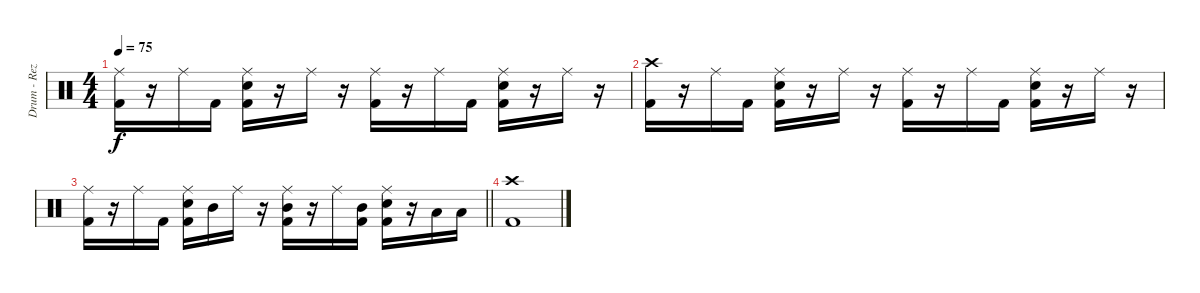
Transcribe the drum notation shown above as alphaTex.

\track ("Drum - Reza" "Drum - Rez") {instrument percussion}
\staff {score}
\articulation defaults
\ts (4 4)
\tempo 75
\clef neutral
\ks c
("Ride (middle)" "Kick (hit) 2").16{dy f} r.16 "Ride (middle)".16 "Kick (hit) 2".16 ("Ride (middle)" "Electric Snare (hit)" "Kick (hit) 2").16 r.16 "Ride (middle)".16 r.16 ("Ride (middle)" "Kick (hit) 2").16 r.16 "Ride (middle)".16 "Kick (hit) 2".16 ("Ride (middle)" "Electric Snare (hit)" "Kick (hit) 2").16 r.16 "Ride (middle)".16 r.16 |
("Crash high (hit)" "Kick (hit) 2").16 r.16 "Ride (middle)".16 "Kick (hit) 2".16 ("Ride (middle)" "Electric Snare (hit)" "Kick (hit) 2").16 r.16 "Ride (middle)".16 r.16 ("Ride (middle)" "Kick (hit) 2").16 r.16 "Ride (middle)".16 "Kick (hit) 2".16 ("Ride (middle)" "Electric Snare (hit)" "Kick (hit) 2").16 r.16 "Ride (middle)".16 r.16 |
\barLineRight lightlight
("Ride (middle)" "Kick (hit) 2").16 r.16 "Ride (middle)".16 "Kick (hit) 2".16 ("Ride (middle)" "Electric Snare (hit)" "Kick (hit) 2").16 "Mid Tom (hit)".16 "Ride (middle)".16 r.16 ("Ride (middle)" "Mid Tom (hit)" "Kick (hit) 2").16 r.16 "Ride (middle)".16 ("Mid Tom (hit)" "Kick (hit) 2").16 ("Ride (middle)" "Electric Snare (hit)" "Kick (hit) 2").16 r.16 "Low Tom (hit)".16 "Low Tom (hit)".16 |
("Crash high (hit)" "Kick (hit) 2").1
